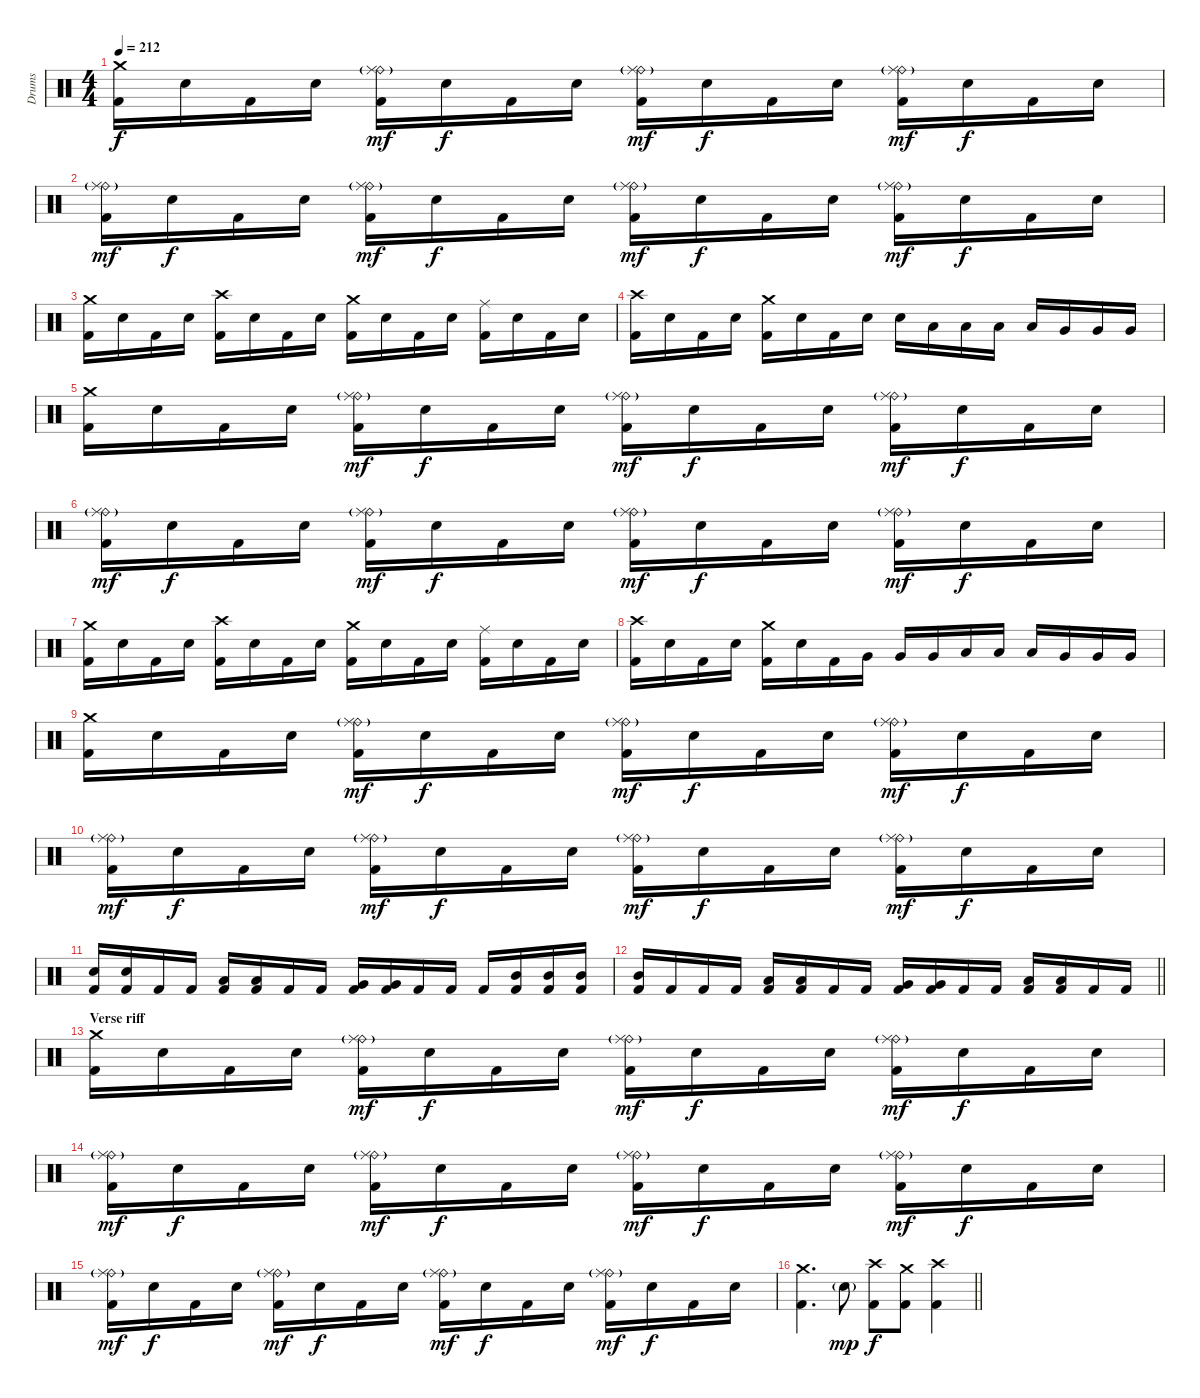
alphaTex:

\track ("Drums" "Drums") {instrument percussion}
\staff {score}
\articulation defaults
\ts (4 4)
\tempo 212
\clef neutral
\ks c
("Crash medium (hit)" "Kick (hit) 2").16{dy f} "Electric Snare (hit)".16 "Kick (hit) 2".16 "Electric Snare (hit)".16 ("Ride (bell)"{g} "Ride (middle)" "Kick (hit) 2").16{dy mf} "Electric Snare (hit)".16{dy f} "Kick (hit) 2".16 "Electric Snare (hit)".16 ("Ride (bell)"{g} "Ride (middle)" "Kick (hit) 2").16{dy mf} "Electric Snare (hit)".16{dy f} "Kick (hit) 2".16 "Electric Snare (hit)".16 ("Ride (bell)"{g} "Ride (middle)" "Kick (hit) 2").16{dy mf} "Electric Snare (hit)".16{dy f} "Kick (hit) 2".16 "Electric Snare (hit)".16 |
("Ride (bell)"{g} "Ride (middle)" "Kick (hit) 2").16{dy mf} "Electric Snare (hit)".16{dy f} "Kick (hit) 2".16 "Electric Snare (hit)".16 ("Ride (bell)"{g} "Ride (middle)" "Kick (hit) 2").16{dy mf} "Electric Snare (hit)".16{dy f} "Kick (hit) 2".16 "Electric Snare (hit)".16 ("Ride (bell)"{g} "Ride (middle)" "Kick (hit) 2").16{dy mf} "Electric Snare (hit)".16{dy f} "Kick (hit) 2".16 "Electric Snare (hit)".16 ("Ride (bell)"{g} "Ride (middle)" "Kick (hit) 2").16{dy mf} "Electric Snare (hit)".16{dy f} "Kick (hit) 2".16 "Electric Snare (hit)".16 |
("Crash medium (hit)" "Kick (hit) 2").16 "Electric Snare (hit)".16 "Kick (hit) 2".16 "Electric Snare (hit)".16 ("Crash high (hit)" "Kick (hit) 2").16 "Electric Snare (hit)".16 "Kick (hit) 2".16 "Electric Snare (hit)".16 ("Crash medium (hit)" "Kick (hit) 2").16 "Electric Snare (hit)".16 "Kick (hit) 2".16 "Electric Snare (hit)".16 ("Ride (middle)" "Kick (hit) 2").16 "Electric Snare (hit)".16 "Kick (hit) 2".16 "Electric Snare (hit)".16 |
("Crash high (hit)" "Kick (hit) 2").16 "Electric Snare (hit)".16 "Kick (hit) 2".16 "Electric Snare (hit)".16 ("Crash medium (hit)" "Kick (hit) 2").16 "Electric Snare (hit)".16 "Kick (hit) 2".16 "Electric Snare (hit)".16 "Electric Snare (hit)".16 "Low Tom (hit)".16 "Low Tom (hit)".16 "Low Tom (hit)".16 "Low Tom (hit)".16 "Very Low Tom (hit)".16 "Very Low Tom (hit)".16 "Very Low Tom (hit)".16 |
("Crash medium (hit)" "Kick (hit) 2").16 "Electric Snare (hit)".16 "Kick (hit) 2".16 "Electric Snare (hit)".16 ("Ride (bell)"{g} "Ride (middle)" "Kick (hit) 2").16{dy mf} "Electric Snare (hit)".16{dy f} "Kick (hit) 2".16 "Electric Snare (hit)".16 ("Ride (bell)"{g} "Ride (middle)" "Kick (hit) 2").16{dy mf} "Electric Snare (hit)".16{dy f} "Kick (hit) 2".16 "Electric Snare (hit)".16 ("Ride (bell)"{g} "Ride (middle)" "Kick (hit) 2").16{dy mf} "Electric Snare (hit)".16{dy f} "Kick (hit) 2".16 "Electric Snare (hit)".16 |
("Ride (bell)"{g} "Ride (middle)" "Kick (hit) 2").16{dy mf} "Electric Snare (hit)".16{dy f} "Kick (hit) 2".16 "Electric Snare (hit)".16 ("Ride (bell)"{g} "Ride (middle)" "Kick (hit) 2").16{dy mf} "Electric Snare (hit)".16{dy f} "Kick (hit) 2".16 "Electric Snare (hit)".16 ("Ride (bell)"{g} "Ride (middle)" "Kick (hit) 2").16{dy mf} "Electric Snare (hit)".16{dy f} "Kick (hit) 2".16 "Electric Snare (hit)".16 ("Ride (bell)"{g} "Ride (middle)" "Kick (hit) 2").16{dy mf} "Electric Snare (hit)".16{dy f} "Kick (hit) 2".16 "Electric Snare (hit)".16 |
("Crash medium (hit)" "Kick (hit) 2").16 "Electric Snare (hit)".16 "Kick (hit) 2".16 "Electric Snare (hit)".16 ("Crash high (hit)" "Kick (hit) 2").16 "Electric Snare (hit)".16 "Kick (hit) 2".16 "Electric Snare (hit)".16 ("Crash medium (hit)" "Kick (hit) 2").16 "Electric Snare (hit)".16 "Kick (hit) 2".16 "Electric Snare (hit)".16 ("Ride (middle)" "Kick (hit) 2").16 "Electric Snare (hit)".16 "Kick (hit) 2".16 "Electric Snare (hit)".16 |
("Crash high (hit)" "Kick (hit) 2").16 "Electric Snare (hit)".16 "Kick (hit) 2".16 "Electric Snare (hit)".16 ("Crash medium (hit)" "Kick (hit) 2").16 "Electric Snare (hit)".16 "Kick (hit) 2".16 "Very Low Tom (hit)".16 "Very Low Tom (hit)".16 "Very Low Tom (hit)".16 "Low Tom (hit)".16 "Low Tom (hit)".16 "Low Tom (hit)".16 "Very Low Tom (hit)".16 "Very Low Tom (hit)".16 "Very Low Tom (hit)".16 |
("Crash medium (hit)" "Kick (hit) 2").16 "Electric Snare (hit)".16 "Kick (hit) 2".16 "Electric Snare (hit)".16 ("Ride (bell)"{g} "Ride (middle)" "Kick (hit) 2").16{dy mf} "Electric Snare (hit)".16{dy f} "Kick (hit) 2".16 "Electric Snare (hit)".16 ("Ride (bell)"{g} "Ride (middle)" "Kick (hit) 2").16{dy mf} "Electric Snare (hit)".16{dy f} "Kick (hit) 2".16 "Electric Snare (hit)".16 ("Ride (bell)"{g} "Ride (middle)" "Kick (hit) 2").16{dy mf} "Electric Snare (hit)".16{dy f} "Kick (hit) 2".16 "Electric Snare (hit)".16 |
("Ride (bell)"{g} "Ride (middle)" "Kick (hit) 2").16{dy mf} "Electric Snare (hit)".16{dy f} "Kick (hit) 2".16 "Electric Snare (hit)".16 ("Ride (bell)"{g} "Ride (middle)" "Kick (hit) 2").16{dy mf} "Electric Snare (hit)".16{dy f} "Kick (hit) 2".16 "Electric Snare (hit)".16 ("Ride (bell)"{g} "Ride (middle)" "Kick (hit) 2").16{dy mf} "Electric Snare (hit)".16{dy f} "Kick (hit) 2".16 "Electric Snare (hit)".16 ("Ride (bell)"{g} "Ride (middle)" "Kick (hit) 2").16{dy mf} "Electric Snare (hit)".16{dy f} "Kick (hit) 2".16 "Electric Snare (hit)".16 |
("Electric Snare (hit)" "Kick (hit) 2").16 ("Electric Snare (hit)" "Kick (hit) 2").16 "Kick (hit) 2".16 "Kick (hit) 2".16 ("Low Tom (hit)" "Kick (hit) 2").16 ("Low Tom (hit)" "Kick (hit) 2").16 "Kick (hit) 2".16 "Kick (hit) 2".16 ("Very Low Tom (hit)" "Kick (hit) 2").16 ("Very Low Tom (hit)" "Kick (hit) 2").16 "Kick (hit) 2".16 "Kick (hit) 2".16 "Kick (hit) 2".16 ("Mid Tom (hit)" "Kick (hit) 2").16 ("Mid Tom (hit)" "Kick (hit) 2").16 ("Mid Tom (hit)" "Kick (hit) 2").16 |
\barLineRight lightlight
("Mid Tom (hit)" "Kick (hit) 2").16 "Kick (hit) 2".16 "Kick (hit) 2".16 "Kick (hit) 2".16 ("Low Tom (hit)" "Kick (hit) 2").16 ("Low Tom (hit)" "Kick (hit) 2").16 "Kick (hit) 2".16 "Kick (hit) 2".16 ("Very Low Tom (hit)" "Kick (hit) 2").16 ("Very Low Tom (hit)" "Kick (hit) 2").16 "Kick (hit) 2".16 "Kick (hit) 2".16 ("Low Floor Tom (hit)" "Kick (hit) 2").16 ("Low Floor Tom (hit)" "Kick (hit) 2").16 "Kick (hit) 2".16 "Kick (hit) 2".16 |
\section ("" "Verse riff")
("Crash medium (hit)" "Kick (hit) 2").16 "Electric Snare (hit)".16 "Kick (hit) 2".16 "Electric Snare (hit)".16 ("Ride (bell)"{g} "Ride (middle)" "Kick (hit) 2").16{dy mf} "Electric Snare (hit)".16{dy f} "Kick (hit) 2".16 "Electric Snare (hit)".16 ("Ride (bell)"{g} "Ride (middle)" "Kick (hit) 2").16{dy mf} "Electric Snare (hit)".16{dy f} "Kick (hit) 2".16 "Electric Snare (hit)".16 ("Ride (bell)"{g} "Ride (middle)" "Kick (hit) 2").16{dy mf} "Electric Snare (hit)".16{dy f} "Kick (hit) 2".16 "Electric Snare (hit)".16 |
("Ride (bell)"{g} "Ride (middle)" "Kick (hit) 2").16{dy mf} "Electric Snare (hit)".16{dy f} "Kick (hit) 2".16 "Electric Snare (hit)".16 ("Ride (bell)"{g} "Ride (middle)" "Kick (hit) 2").16{dy mf} "Electric Snare (hit)".16{dy f} "Kick (hit) 2".16 "Electric Snare (hit)".16 ("Ride (bell)"{g} "Ride (middle)" "Kick (hit) 2").16{dy mf} "Electric Snare (hit)".16{dy f} "Kick (hit) 2".16 "Electric Snare (hit)".16 ("Ride (bell)"{g} "Ride (middle)" "Kick (hit) 2").16{dy mf} "Electric Snare (hit)".16{dy f} "Kick (hit) 2".16 "Electric Snare (hit)".16 |
("Ride (bell)"{g} "Ride (middle)" "Kick (hit) 2").16{dy mf} "Electric Snare (hit)".16{dy f} "Kick (hit) 2".16 "Electric Snare (hit)".16 ("Ride (bell)"{g} "Ride (middle)" "Kick (hit) 2").16{dy mf} "Electric Snare (hit)".16{dy f} "Kick (hit) 2".16 "Electric Snare (hit)".16 ("Ride (bell)"{g} "Ride (middle)" "Kick (hit) 2").16{dy mf} "Electric Snare (hit)".16{dy f} "Kick (hit) 2".16 "Electric Snare (hit)".16 ("Ride (bell)"{g} "Ride (middle)" "Kick (hit) 2").16{dy mf} "Electric Snare (hit)".16{dy f} "Kick (hit) 2".16 "Electric Snare (hit)".16 |
\barLineRight lightlight
("Crash medium (hit)" "Kick (hit) 2").4{d} "Electric Snare (hit)"{g}.8{dy mp} ("Crash high (hit)" "Kick (hit) 2").8{dy f} ("Crash medium (hit)" "Kick (hit) 2").8 ("Crash high (hit)" "Kick (hit) 2").4
